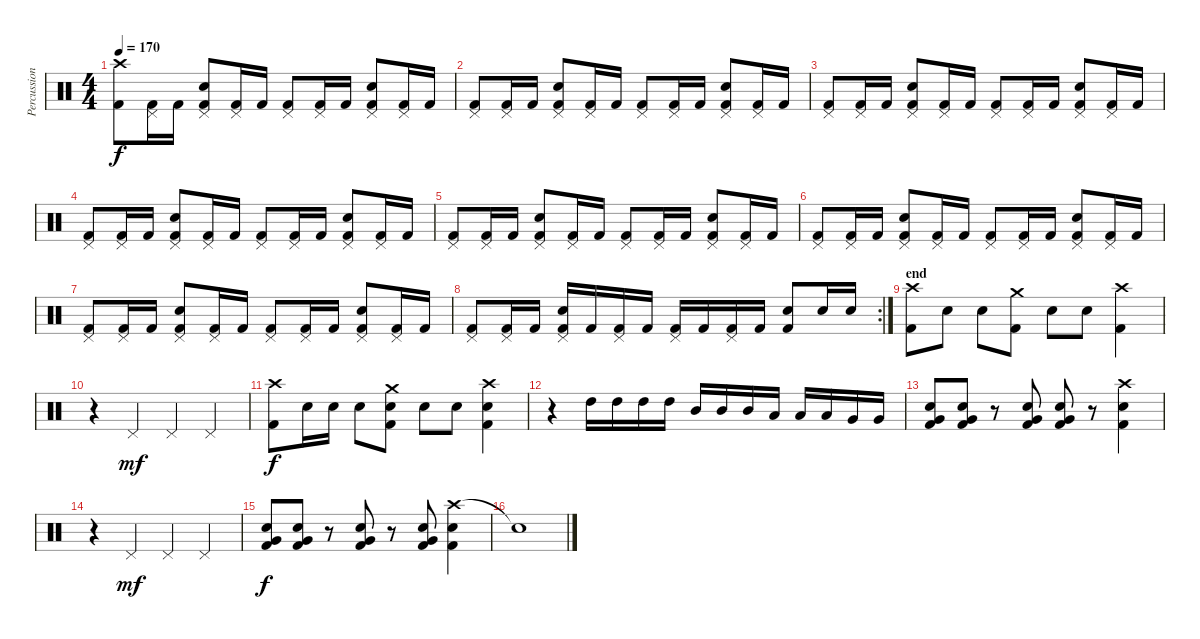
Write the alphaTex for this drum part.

\track ("Percussion" "Percussion") {instrument percussion}
\staff {score}
\articulation defaults
\ts (4 4)
\tempo 170
\clef neutral
\ks c
("Crash high (hit)" "Kick (hit) 2").8{dy f} ("Pedal Hi-Hat (hit)" "Kick (hit) 2").16 "Kick (hit) 2".16 ("Pedal Hi-Hat (hit)" "Electric Snare (hit)" "Kick (hit) 2").8 ("Pedal Hi-Hat (hit)" "Kick (hit) 2").16 "Kick (hit) 2".16 ("Pedal Hi-Hat (hit)" "Kick (hit) 2").8 ("Pedal Hi-Hat (hit)" "Kick (hit) 2").16 "Kick (hit) 2".16 ("Pedal Hi-Hat (hit)" "Electric Snare (hit)" "Kick (hit) 2").8 ("Pedal Hi-Hat (hit)" "Kick (hit) 2").16 "Kick (hit) 2".16 |
("Pedal Hi-Hat (hit)" "Kick (hit) 2").8 ("Pedal Hi-Hat (hit)" "Kick (hit) 2").16 "Kick (hit) 2".16 ("Pedal Hi-Hat (hit)" "Electric Snare (hit)" "Kick (hit) 2").8 ("Pedal Hi-Hat (hit)" "Kick (hit) 2").16 "Kick (hit) 2".16 ("Pedal Hi-Hat (hit)" "Kick (hit) 2").8 ("Pedal Hi-Hat (hit)" "Kick (hit) 2").16 "Kick (hit) 2".16 ("Pedal Hi-Hat (hit)" "Electric Snare (hit)" "Kick (hit) 2").8 ("Pedal Hi-Hat (hit)" "Kick (hit) 2").16 "Kick (hit) 2".16 |
("Pedal Hi-Hat (hit)" "Kick (hit) 2").8 ("Pedal Hi-Hat (hit)" "Kick (hit) 2").16 "Kick (hit) 2".16 ("Pedal Hi-Hat (hit)" "Electric Snare (hit)" "Kick (hit) 2").8 ("Pedal Hi-Hat (hit)" "Kick (hit) 2").16 "Kick (hit) 2".16 ("Pedal Hi-Hat (hit)" "Kick (hit) 2").8 ("Pedal Hi-Hat (hit)" "Kick (hit) 2").16 "Kick (hit) 2".16 ("Pedal Hi-Hat (hit)" "Electric Snare (hit)" "Kick (hit) 2").8 ("Pedal Hi-Hat (hit)" "Kick (hit) 2").16 "Kick (hit) 2".16 |
("Pedal Hi-Hat (hit)" "Kick (hit) 2").8 ("Pedal Hi-Hat (hit)" "Kick (hit) 2").16 "Kick (hit) 2".16 ("Pedal Hi-Hat (hit)" "Electric Snare (hit)" "Kick (hit) 2").8 ("Pedal Hi-Hat (hit)" "Kick (hit) 2").16 "Kick (hit) 2".16 ("Pedal Hi-Hat (hit)" "Kick (hit) 2").8 ("Pedal Hi-Hat (hit)" "Kick (hit) 2").16 "Kick (hit) 2".16 ("Pedal Hi-Hat (hit)" "Electric Snare (hit)" "Kick (hit) 2").8 ("Pedal Hi-Hat (hit)" "Kick (hit) 2").16 "Kick (hit) 2".16 |
("Pedal Hi-Hat (hit)" "Kick (hit) 2").8 ("Pedal Hi-Hat (hit)" "Kick (hit) 2").16 "Kick (hit) 2".16 ("Pedal Hi-Hat (hit)" "Electric Snare (hit)" "Kick (hit) 2").8 ("Pedal Hi-Hat (hit)" "Kick (hit) 2").16 "Kick (hit) 2".16 ("Pedal Hi-Hat (hit)" "Kick (hit) 2").8 ("Pedal Hi-Hat (hit)" "Kick (hit) 2").16 "Kick (hit) 2".16 ("Pedal Hi-Hat (hit)" "Electric Snare (hit)" "Kick (hit) 2").8 ("Pedal Hi-Hat (hit)" "Kick (hit) 2").16 "Kick (hit) 2".16 |
("Pedal Hi-Hat (hit)" "Kick (hit) 2").8 ("Pedal Hi-Hat (hit)" "Kick (hit) 2").16 "Kick (hit) 2".16 ("Pedal Hi-Hat (hit)" "Electric Snare (hit)" "Kick (hit) 2").8 ("Pedal Hi-Hat (hit)" "Kick (hit) 2").16 "Kick (hit) 2".16 ("Pedal Hi-Hat (hit)" "Kick (hit) 2").8 ("Pedal Hi-Hat (hit)" "Kick (hit) 2").16 "Kick (hit) 2".16 ("Pedal Hi-Hat (hit)" "Electric Snare (hit)" "Kick (hit) 2").8 ("Pedal Hi-Hat (hit)" "Kick (hit) 2").16 "Kick (hit) 2".16 |
("Pedal Hi-Hat (hit)" "Kick (hit) 2").8 ("Pedal Hi-Hat (hit)" "Kick (hit) 2").16 "Kick (hit) 2".16 ("Pedal Hi-Hat (hit)" "Electric Snare (hit)" "Kick (hit) 2").8 ("Pedal Hi-Hat (hit)" "Kick (hit) 2").16 "Kick (hit) 2".16 ("Pedal Hi-Hat (hit)" "Kick (hit) 2").8 ("Pedal Hi-Hat (hit)" "Kick (hit) 2").16 "Kick (hit) 2".16 ("Pedal Hi-Hat (hit)" "Electric Snare (hit)" "Kick (hit) 2").8 ("Pedal Hi-Hat (hit)" "Kick (hit) 2").16 "Kick (hit) 2".16 |
\rc 2
("Pedal Hi-Hat (hit)" "Kick (hit) 2").8 ("Pedal Hi-Hat (hit)" "Kick (hit) 2").16 "Kick (hit) 2".16 ("Pedal Hi-Hat (hit)" "Electric Snare (hit)" "Kick (hit) 2").16 "Kick (hit) 2".16 ("Pedal Hi-Hat (hit)" "Kick (hit) 2").16 "Kick (hit) 2".16 ("Pedal Hi-Hat (hit)" "Kick (hit) 2").16 "Kick (hit) 2".16 ("Pedal Hi-Hat (hit)" "Kick (hit) 2").16 "Kick (hit) 2".16 ("Electric Snare (hit)" "Kick (hit) 2").8 "Electric Snare (hit)".16 "Electric Snare (hit)".16 |
\section ("" "end")
("Crash high (hit)" "Kick (hit) 2").8 "Electric Snare (hit)".8 "Electric Snare (hit)".8 ("Crash medium (hit)" "Kick (hit) 2").8 "Electric Snare (hit)".8 "Electric Snare (hit)".8 ("Crash high (hit)" "Kick (hit) 2").4 |
r.4 "Pedal Hi-Hat (hit)".4{dy mf} "Pedal Hi-Hat (hit)".4 "Pedal Hi-Hat (hit)".4 |
("Crash high (hit)" "Kick (hit) 2").8{dy f} "Electric Snare (hit)".16 "Electric Snare (hit)".16 "Electric Snare (hit)".8 ("Crash medium (hit)" "Electric Snare (hit)" "Kick (hit) 2").8 "Electric Snare (hit)".8 "Electric Snare (hit)".8 ("Crash high (hit)" "Electric Snare (hit)" "Kick (hit) 2").4 |
r.4 "High Tom (hit)".16 "High Tom (hit)".16 "High Tom (hit)".16 "High Tom (hit)".16 "Mid Tom (hit)".16 "Mid Tom (hit)".16 "Mid Tom (hit)".16 "Low Tom (hit)".16 "Low Tom (hit)".16 "Low Tom (hit)".16 "Very Low Tom (hit)".16 "Very Low Tom (hit)".16 |
("Very Low Tom (hit)" "Electric Snare (hit)" "Kick (hit) 2").8 ("Very Low Tom (hit)" "Electric Snare (hit)" "Kick (hit) 2").8 r.8 ("Very Low Tom (hit)" "Electric Snare (hit)" "Kick (hit) 2").8 ("Very Low Tom (hit)" "Electric Snare (hit)" "Kick (hit) 2").8 r.8 ("Crash high (hit)" "Electric Snare (hit)" "Kick (hit) 2").4 |
r.4 "Pedal Hi-Hat (hit)".4{dy mf} "Pedal Hi-Hat (hit)".4 "Pedal Hi-Hat (hit)".4 |
("Very Low Tom (hit)" "Electric Snare (hit)" "Kick (hit) 2").8{dy f} ("Very Low Tom (hit)" "Electric Snare (hit)" "Kick (hit) 2").8 r.8 ("Very Low Tom (hit)" "Electric Snare (hit)" "Kick (hit) 2").8 r.8 ("Very Low Tom (hit)" "Electric Snare (hit)" "Kick (hit) 2").8 ("Crash high (hit)" "Electric Snare (hit)" "Kick (hit) 2").4 |
"Snare (hit)"{t}.1
